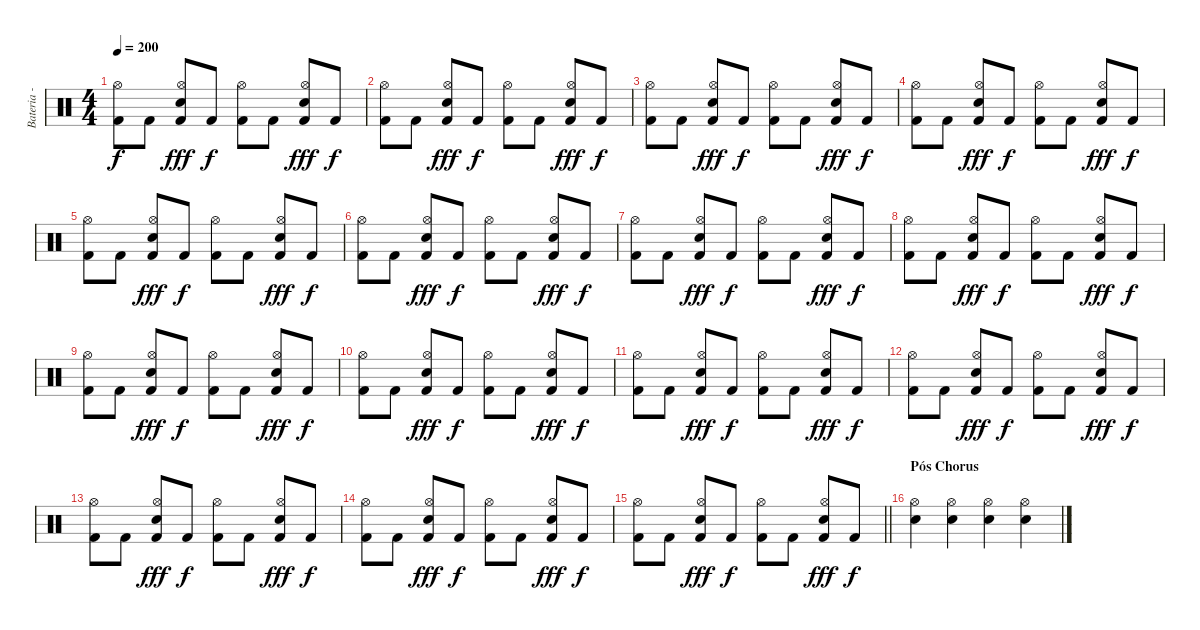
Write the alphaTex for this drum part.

\track ("Bateria - Larzon" "Bateria - ") {instrument percussion}
\staff {score}
\articulation defaults
\ts (4 4)
\tempo 200
\clef neutral
\ks c
("Kick (hit) 2" "Hi-Hat (open)").8{dy f} "Kick (hit) 2".8 ("Kick (hit) 2" "Hi-Hat (open)" "Snare (hit) 2").8{dy fff} "Kick (hit) 2".8{dy f} ("Kick (hit) 2" "Hi-Hat (open)").8 "Kick (hit) 2".8 ("Kick (hit) 2" "Hi-Hat (open)" "Snare (hit) 2").8{dy fff} "Kick (hit) 2".8{dy f} |
("Kick (hit) 2" "Hi-Hat (open)").8 "Kick (hit) 2".8 ("Kick (hit) 2" "Hi-Hat (open)" "Snare (hit) 2").8{dy fff} "Kick (hit) 2".8{dy f} ("Kick (hit) 2" "Hi-Hat (open)").8 "Kick (hit) 2".8 ("Kick (hit) 2" "Hi-Hat (open)" "Snare (hit) 2").8{dy fff} "Kick (hit) 2".8{dy f} |
("Kick (hit) 2" "Hi-Hat (open)").8 "Kick (hit) 2".8 ("Kick (hit) 2" "Hi-Hat (open)" "Snare (hit) 2").8{dy fff} "Kick (hit) 2".8{dy f} ("Kick (hit) 2" "Hi-Hat (open)").8 "Kick (hit) 2".8 ("Kick (hit) 2" "Hi-Hat (open)" "Snare (hit) 2").8{dy fff} "Kick (hit) 2".8{dy f} |
("Kick (hit) 2" "Hi-Hat (open)").8 "Kick (hit) 2".8 ("Kick (hit) 2" "Hi-Hat (open)" "Snare (hit) 2").8{dy fff} "Kick (hit) 2".8{dy f} ("Kick (hit) 2" "Hi-Hat (open)").8 "Kick (hit) 2".8 ("Kick (hit) 2" "Hi-Hat (open)" "Snare (hit) 2").8{dy fff} "Kick (hit) 2".8{dy f} |
("Kick (hit) 2" "Hi-Hat (open)").8 "Kick (hit) 2".8 ("Kick (hit) 2" "Hi-Hat (open)" "Snare (hit) 2").8{dy fff} "Kick (hit) 2".8{dy f} ("Kick (hit) 2" "Hi-Hat (open)").8 "Kick (hit) 2".8 ("Kick (hit) 2" "Hi-Hat (open)" "Snare (hit) 2").8{dy fff} "Kick (hit) 2".8{dy f} |
("Kick (hit) 2" "Hi-Hat (open)").8 "Kick (hit) 2".8 ("Kick (hit) 2" "Hi-Hat (open)" "Snare (hit) 2").8{dy fff} "Kick (hit) 2".8{dy f} ("Kick (hit) 2" "Hi-Hat (open)").8 "Kick (hit) 2".8 ("Kick (hit) 2" "Hi-Hat (open)" "Snare (hit) 2").8{dy fff} "Kick (hit) 2".8{dy f} |
("Kick (hit) 2" "Hi-Hat (open)").8 "Kick (hit) 2".8 ("Kick (hit) 2" "Hi-Hat (open)" "Snare (hit) 2").8{dy fff} "Kick (hit) 2".8{dy f} ("Kick (hit) 2" "Hi-Hat (open)").8 "Kick (hit) 2".8 ("Kick (hit) 2" "Hi-Hat (open)" "Snare (hit) 2").8{dy fff} "Kick (hit) 2".8{dy f} |
("Kick (hit) 2" "Hi-Hat (open)").8 "Kick (hit) 2".8 ("Kick (hit) 2" "Hi-Hat (open)" "Snare (hit) 2").8{dy fff} "Kick (hit) 2".8{dy f} ("Kick (hit) 2" "Hi-Hat (open)").8 "Kick (hit) 2".8 ("Kick (hit) 2" "Hi-Hat (open)" "Snare (hit) 2").8{dy fff} "Kick (hit) 2".8{dy f} |
("Kick (hit) 2" "Hi-Hat (open)").8 "Kick (hit) 2".8 ("Kick (hit) 2" "Hi-Hat (open)" "Snare (hit) 2").8{dy fff} "Kick (hit) 2".8{dy f} ("Kick (hit) 2" "Hi-Hat (open)").8 "Kick (hit) 2".8 ("Kick (hit) 2" "Hi-Hat (open)" "Snare (hit) 2").8{dy fff} "Kick (hit) 2".8{dy f} |
("Kick (hit) 2" "Hi-Hat (open)").8 "Kick (hit) 2".8 ("Kick (hit) 2" "Hi-Hat (open)" "Snare (hit) 2").8{dy fff} "Kick (hit) 2".8{dy f} ("Kick (hit) 2" "Hi-Hat (open)").8 "Kick (hit) 2".8 ("Kick (hit) 2" "Hi-Hat (open)" "Snare (hit) 2").8{dy fff} "Kick (hit) 2".8{dy f} |
("Kick (hit) 2" "Hi-Hat (open)").8 "Kick (hit) 2".8 ("Kick (hit) 2" "Hi-Hat (open)" "Snare (hit) 2").8{dy fff} "Kick (hit) 2".8{dy f} ("Kick (hit) 2" "Hi-Hat (open)").8 "Kick (hit) 2".8 ("Kick (hit) 2" "Hi-Hat (open)" "Snare (hit) 2").8{dy fff} "Kick (hit) 2".8{dy f} |
("Kick (hit) 2" "Hi-Hat (open)").8 "Kick (hit) 2".8 ("Kick (hit) 2" "Hi-Hat (open)" "Snare (hit) 2").8{dy fff} "Kick (hit) 2".8{dy f} ("Kick (hit) 2" "Hi-Hat (open)").8 "Kick (hit) 2".8 ("Kick (hit) 2" "Hi-Hat (open)" "Snare (hit) 2").8{dy fff} "Kick (hit) 2".8{dy f} |
("Kick (hit) 2" "Hi-Hat (open)").8 "Kick (hit) 2".8 ("Kick (hit) 2" "Hi-Hat (open)" "Snare (hit) 2").8{dy fff} "Kick (hit) 2".8{dy f} ("Kick (hit) 2" "Hi-Hat (open)").8 "Kick (hit) 2".8 ("Kick (hit) 2" "Hi-Hat (open)" "Snare (hit) 2").8{dy fff} "Kick (hit) 2".8{dy f} |
("Kick (hit) 2" "Hi-Hat (open)").8 "Kick (hit) 2".8 ("Kick (hit) 2" "Hi-Hat (open)" "Snare (hit) 2").8{dy fff} "Kick (hit) 2".8{dy f} ("Kick (hit) 2" "Hi-Hat (open)").8 "Kick (hit) 2".8 ("Kick (hit) 2" "Hi-Hat (open)" "Snare (hit) 2").8{dy fff} "Kick (hit) 2".8{dy f} |
\barLineRight lightlight
("Kick (hit) 2" "Hi-Hat (open)").8 "Kick (hit) 2".8 ("Kick (hit) 2" "Hi-Hat (open)" "Snare (hit) 2").8{dy fff} "Kick (hit) 2".8{dy f} ("Kick (hit) 2" "Hi-Hat (open)").8 "Kick (hit) 2".8 ("Kick (hit) 2" "Hi-Hat (open)" "Snare (hit) 2").8{dy fff} "Kick (hit) 2".8{dy f} |
\section ("" "Pós Chorus")
("Snare (hit) 2" "Hi-Hat (open)").4 ("Snare (hit) 2" "Hi-Hat (open)").4 ("Snare (hit) 2" "Hi-Hat (open)").4 ("Snare (hit) 2" "Hi-Hat (open)").4
